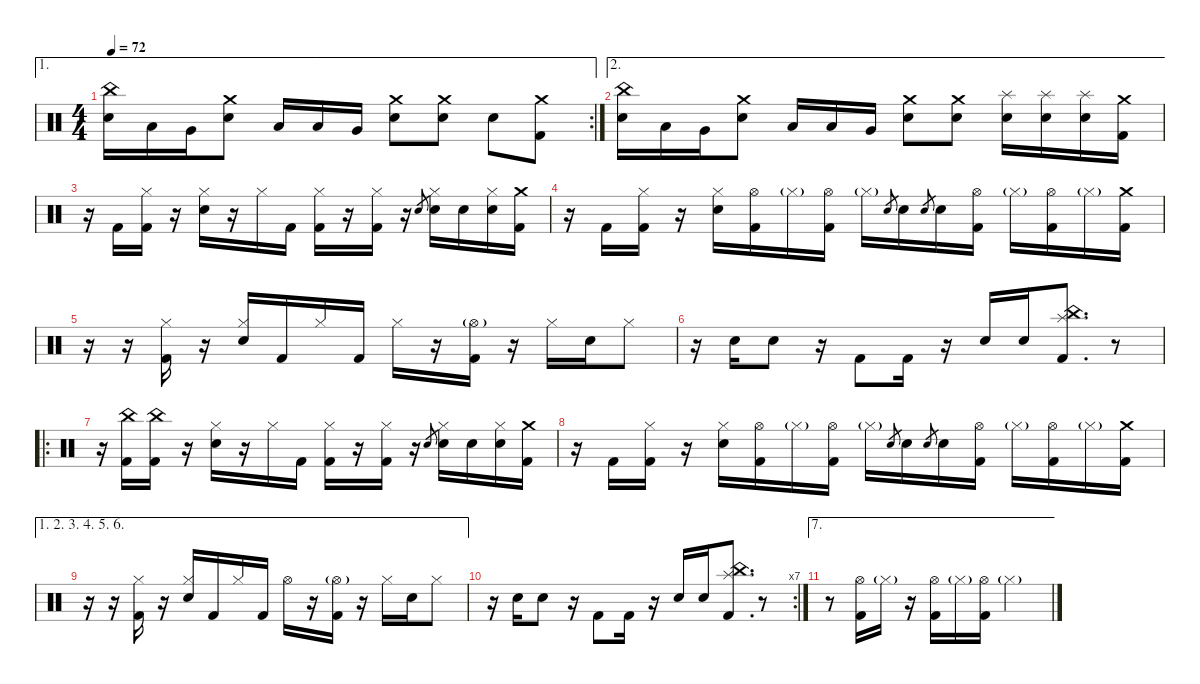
\defaultSystemsLayout 4
\hideDynamics
\bracketExtendMode nobrackets
\singleTrackTrackNamePolicy hidden
\multiTrackTrackNamePolicy hidden
\firstSystemTrackNameMode fullname
\firstSystemTrackNameOrientation horizontal
\otherSystemsTrackNameOrientation horizontal
\track ("Drums" "drm.") {instrument percussion}
\staff {score}
\articulation defaults
\ae 1
\rc 2
\ts (4 4)
\tempo 72
\clef neutral
\ks c
("China (hit)" "Snare (hit) 2").16{dy f beam Down} "Low Tom (hit)".16{beam Down} "Very Low Tom (hit)".16{beam Down} ("Crash medium (hit)" "Snare (hit) 2").8{beam Down} "Low Tom (hit)".16{beam Up} "Low Tom (hit)".16{beam Up} "Very Low Tom (hit)".16{beam Up} ("Crash medium (hit)" "Snare (hit) 2").8{beam Down} ("Crash medium (hit)" "Snare (hit) 2").8{beam Down} "Snare (hit) 2".8{beam Down} ("Crash medium (hit)" "Kick (hit) 2").8{beam Down} |
\ae 2
("China (hit)" "Snare (hit) 2").16{beam Down} "Low Tom (hit)".16{beam Down} "Very Low Tom (hit)".16{beam Down} ("Crash medium (hit)" "Snare (hit) 2").8{beam Down} "Low Tom (hit)".16{beam Up} "Low Tom (hit)".16{beam Up} "Very Low Tom (hit)".16{beam Up} ("Crash medium (hit)" "Snare (hit) 2").8{beam Down} ("Crash medium (hit)" "Snare (hit) 2").8{beam Down} ("Splash (hit)" "Snare (hit) 2").16{beam Down} ("Splash (hit)" "Snare (hit) 2").16{beam Down} ("Splash (hit)" "Snare (hit) 2").16{beam Down} ("Crash medium (hit)" "Kick (hit) 2").16{beam Down} |
r.16{beam Down} "Kick (hit) 2".16{beam Down} ("Hi-Hat (closed)" "Kick (hit) 2").16{beam Down} r.16{beam Down} ("Hi-Hat (closed)" "Snare (hit) 2").16{beam Down} r.16{beam Down} "Hi-Hat (closed)".16{beam Down} "Kick (hit) 2".16{beam Down} ("Hi-Hat (closed)" "Kick (hit) 2").16{beam Down} r.16{beam Down} ("Hi-Hat (closed)" "Kick (hit) 2").16{beam Down} r.16{beam Down} "Electric Snare (hit)".8{gr dy pp beam Up} ("Hi-Hat (closed)" "Snare (hit) 2").16{dy f beam Down} "Snare (hit) 2".16{beam Down} ("Hi-Hat (closed)" "Snare (hit) 2").16{beam Down} ("Crash medium (hit)" "Kick (hit) 2").16{beam Down} |
r.16{beam Down} "Kick (hit) 2".16{beam Down} ("Hi-Hat (closed)" "Kick (hit) 2").16{beam Down} r.16{beam Down} ("Hi-Hat (closed)" "Snare (hit) 2").16{beam Down} ("Hi-Hat (open)" "Kick (hit) 2").16{beam Down} "Hi-Hat (closed)"{g}.16{dy mf beam Down} ("Hi-Hat (open)" "Kick (hit) 2").16{dy f beam Down} "Hi-Hat (closed)"{g}.16{dy mf beam Down} "Electric Snare (hit)".8{gr dy p beam Up} "Snare (hit) 2".16{dy f beam Down} "Electric Snare (hit)".8{gr dy pp beam Up} "Snare (hit) 2".16{dy f beam Down} ("Hi-Hat (open)" "Kick (hit) 2").16{beam Down} "Hi-Hat (closed)"{g}.16{dy mf beam Down} ("Hi-Hat (open)" "Kick (hit) 2").16{dy f beam Down} "Hi-Hat (closed)"{g}.16{dy mf beam Down} ("Crash medium (hit)" "Kick (hit) 2").16{dy f beam Down} |
r.16{beam Down} r.16{beam Down} ("Hi-Hat (closed)" "Kick (hit) 2").16{beam Down} r.16{beam Down} ("Hi-Hat (closed)" "Snare (hit) 2").16{beam Up} "Kick (hit) 2".16{beam Up} "Hi-Hat (closed)".16{beam Up} "Kick (hit) 2".16{beam Up} "Hi-Hat (closed)".16{beam Down} r.16{beam Down} ("Hi-Hat (open)"{g} "Kick (hit) 2").16{beam Down} r.16{beam Down} "Hi-Hat (closed)".16{beam Down} "Snare (hit) 2".16{beam Down} "Hi-Hat (closed)".8{beam Down} |
r.16{beam Down} "Snare (hit) 2".16{beam Down} "Snare (hit) 2".8{beam Down} r.16{beam Down} "Kick (hit) 2".8{beam Up} "Kick (hit) 2".16{beam Up} r.16{beam Up} "Snare (hit) 2".16{beam Down} "Snare (hit) 2".16{beam Down} ("China (hit)" "Splash (hit)" "Kick (hit) 2").8{d beam Down} r.8{beam Down} |
\ro
r.16{beam Down} ("China (hit)" "Kick (hit) 2").16{beam Down} ("China (hit)" "Kick (hit) 2").16{beam Down} r.16{beam Down} ("Hi-Hat (closed)" "Snare (hit) 2").16{beam Down} r.16{beam Down} "Hi-Hat (closed)".16{beam Down} "Kick (hit) 2".16{beam Down} ("Hi-Hat (closed)" "Kick (hit) 2").16{beam Down} r.16{beam Down} ("Hi-Hat (closed)" "Kick (hit) 2").16{beam Down} r.16{beam Down} "Electric Snare (hit)".8{gr dy pp beam Up} ("Hi-Hat (closed)" "Snare (hit) 2").16{dy f beam Down} "Snare (hit) 2".16{beam Down} ("Hi-Hat (closed)" "Snare (hit) 2").16{beam Down} ("Crash medium (hit)" "Kick (hit) 2").16{beam Down} |
r.16{beam Down} "Kick (hit) 2".16{beam Down} ("Hi-Hat (closed)" "Kick (hit) 2").16{beam Down} r.16{beam Down} ("Hi-Hat (closed)" "Snare (hit) 2").16{beam Down} ("Hi-Hat (open)" "Kick (hit) 2").16{beam Down} "Hi-Hat (closed)"{g}.16{dy mf beam Down} ("Hi-Hat (open)" "Kick (hit) 2").16{dy f beam Down} "Hi-Hat (closed)"{g}.16{dy mf beam Down} "Electric Snare (hit)".8{gr dy p beam Up} "Snare (hit) 2".16{dy f beam Down} "Electric Snare (hit)".8{gr dy pp beam Up} "Snare (hit) 2".16{dy f beam Down} ("Hi-Hat (open)" "Kick (hit) 2").16{beam Down} "Hi-Hat (closed)"{g}.16{dy mf beam Down} ("Hi-Hat (open)" "Kick (hit) 2").16{dy f beam Down} "Hi-Hat (closed)"{g}.16{dy mf beam Down} ("Crash medium (hit)" "Kick (hit) 2").16{dy f beam Down} |
\ae (1 2 3 4 5 6)
r.16{beam Down} r.16{beam Down} ("Hi-Hat (closed)" "Kick (hit) 2").16{beam Down} r.16{beam Down} ("Hi-Hat (closed)" "Snare (hit) 2").16{beam Up} "Kick (hit) 2".16{beam Up} "Hi-Hat (closed)".16{beam Up} "Kick (hit) 2".16{beam Up} "Hi-Hat (open)".16{beam Down} r.16{beam Down} ("Hi-Hat (open)"{g} "Kick (hit) 2").16{beam Down} r.16{beam Down} "Hi-Hat (closed)".16{beam Down} "Snare (hit) 2".16{beam Down} "Hi-Hat (closed)".8{beam Down} |
\rc 7
r.16{beam Down} "Snare (hit) 2".16{beam Down} "Snare (hit) 2".8{beam Down} r.16{beam Down} "Kick (hit) 2".8{beam Up} "Kick (hit) 2".16{beam Up} r.16{beam Up} "Snare (hit) 2".16{beam Down} "Snare (hit) 2".16{beam Down} ("China (hit)" "Splash (hit)" "Kick (hit) 2").8{d beam Down} r.8{beam Down} |
\ae 7
r.8{beam Down} ("Hi-Hat (open)" "Kick (hit) 2").16{beam Down} "Hi-Hat (closed)"{g}.16{dy mf beam Down} r.16{beam Down} ("Hi-Hat (open)" "Kick (hit) 2").16{dy f beam Down} "Hi-Hat (closed)"{g}.16{dy mf beam Down} ("Hi-Hat (open)" "Kick (hit) 2").16{dy f beam Down} "Hi-Hat (closed)"{g}.2{dy mf beam Down}
